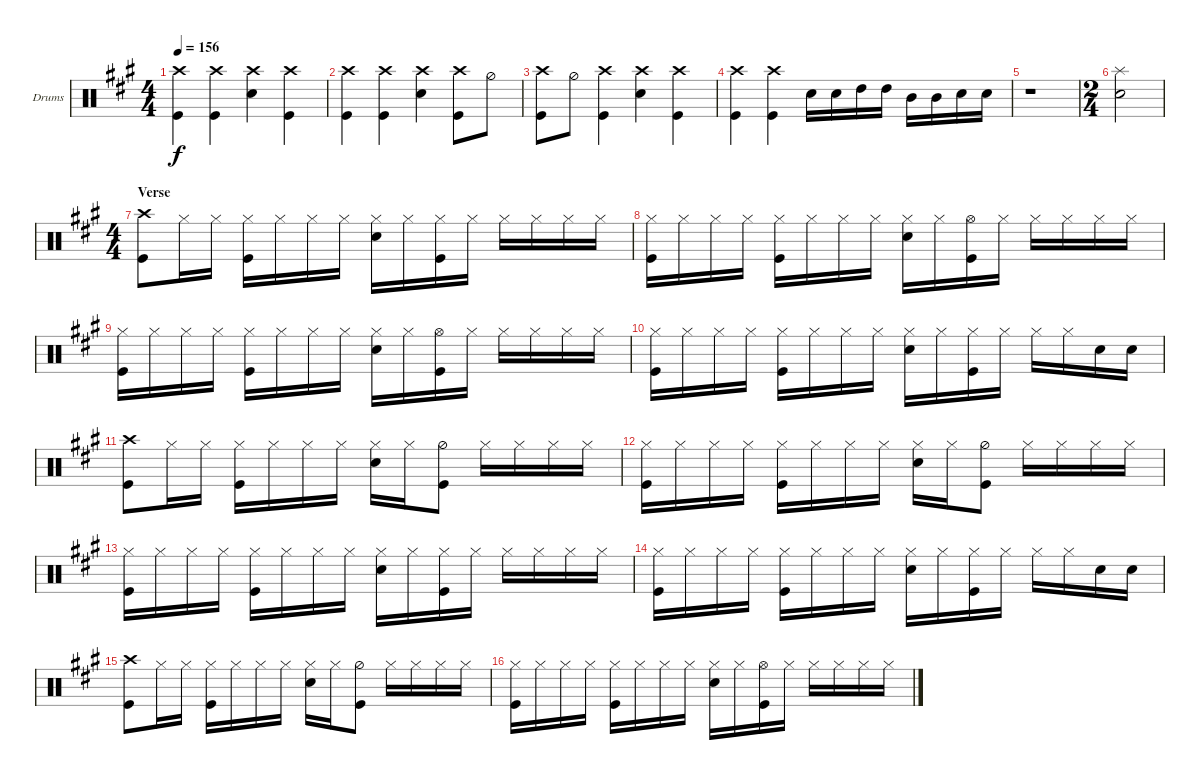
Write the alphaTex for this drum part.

\defaultSystemsLayout 4
\bracketExtendMode groupsimilarinstruments
\firstSystemTrackNameOrientation horizontal
\otherSystemsTrackNameOrientation horizontal
\track ("Drums" "Drums") {instrument percussion}
\staff {score}
\articulation defaults
\ts (4 4)
\tempo 156
\clef neutral
\ks a
("Kick (hit)" "Crash high (hit)").4{dy f} ("Kick (hit)" "Crash high (hit)").4 ("Crash high (hit)" "Snare (hit) 2").4 ("Kick (hit)" "Crash high (hit)").4 |
("Kick (hit)" "Crash high (hit)").4 ("Kick (hit)" "Crash high (hit)").4 ("Crash high (hit)" "Snare (hit) 2").4 ("Kick (hit)" "Crash high (hit)").8 "Hi-Hat (half)".8 |
("Kick (hit)" "Crash high (hit)").8 "Hi-Hat (half)".8 ("Kick (hit)" "Crash high (hit)").4 ("Crash high (hit)" "Snare (hit) 2").4 ("Kick (hit)" "Crash high (hit)").4 |
("Kick (hit)" "Crash high (hit)").4 ("Kick (hit)" "Crash high (hit)").4 "Snare (hit) 2".16 "Snare (hit) 2".16 "High Tom (hit)".16 "High Tom (hit)".16 "Mid Tom (hit)".16 "Mid Tom (hit)".16 "Snare (hit) 2".16 "Snare (hit) 2".16 |
r.1 |
\ts (2 4)
("Splash (hit)" "Snare (hit) 2").2 |
\ts (4 4)
\section ("" "Verse")
("Crash high (hit)" "Kick (hit)").8 "Hi-Hat (closed)".16 "Hi-Hat (closed)".16 ("Hi-Hat (closed)" "Kick (hit)").16 "Hi-Hat (closed)".16 "Hi-Hat (closed)".16 "Hi-Hat (closed)".16 ("Hi-Hat (closed)" "Snare (hit) 2").16 "Hi-Hat (closed)".16 ("Hi-Hat (closed)" "Kick (hit)").16 "Hi-Hat (closed)".16 "Hi-Hat (closed)".16 "Hi-Hat (closed)".16 "Hi-Hat (closed)".16 "Hi-Hat (closed)".16 |
("Hi-Hat (closed)" "Kick (hit)").16 "Hi-Hat (closed)".16 "Hi-Hat (closed)".16 "Hi-Hat (closed)".16 ("Hi-Hat (closed)" "Kick (hit)").16 "Hi-Hat (closed)".16 "Hi-Hat (closed)".16 "Hi-Hat (closed)".16 ("Hi-Hat (closed)" "Snare (hit) 2").16 "Hi-Hat (closed)".16 ("Hi-Hat (open)" "Kick (hit)").16 "Hi-Hat (closed)".16 "Hi-Hat (closed)".16 "Hi-Hat (closed)".16 "Hi-Hat (closed)".16 "Hi-Hat (closed)".16 |
("Hi-Hat (closed)" "Kick (hit)").16 "Hi-Hat (closed)".16 "Hi-Hat (closed)".16 "Hi-Hat (closed)".16 ("Hi-Hat (closed)" "Kick (hit)").16 "Hi-Hat (closed)".16 "Hi-Hat (closed)".16 "Hi-Hat (closed)".16 ("Hi-Hat (closed)" "Snare (hit) 2").16 "Hi-Hat (closed)".16 ("Hi-Hat (open)" "Kick (hit)").16 "Hi-Hat (closed)".16 "Hi-Hat (closed)".16 "Hi-Hat (closed)".16 "Hi-Hat (closed)".16 "Hi-Hat (closed)".16 |
("Hi-Hat (closed)" "Kick (hit)").16 "Hi-Hat (closed)".16 "Hi-Hat (closed)".16 "Hi-Hat (closed)".16 ("Hi-Hat (closed)" "Kick (hit)").16 "Hi-Hat (closed)".16 "Hi-Hat (closed)".16 "Hi-Hat (closed)".16 ("Hi-Hat (closed)" "Snare (hit) 2").16 "Hi-Hat (closed)".16 ("Hi-Hat (closed)" "Kick (hit)").16 "Hi-Hat (closed)".16 "Hi-Hat (closed)".16 "Hi-Hat (closed)".16 "Snare (hit) 2".16 "Snare (hit) 2".16 |
("Crash high (hit)" "Kick (hit)").8 "Hi-Hat (closed)".16 "Hi-Hat (closed)".16 ("Hi-Hat (closed)" "Kick (hit)").16 "Hi-Hat (closed)".16 "Hi-Hat (closed)".16 "Hi-Hat (closed)".16 ("Hi-Hat (closed)" "Snare (hit) 2").16 "Hi-Hat (closed)".16 ("Hi-Hat (half)" "Kick (hit)").8 "Hi-Hat (closed)".16 "Hi-Hat (closed)".16 "Hi-Hat (closed)".16 "Hi-Hat (closed)".16 |
("Hi-Hat (closed)" "Kick (hit)").16 "Hi-Hat (closed)".16 "Hi-Hat (closed)".16 "Hi-Hat (closed)".16 ("Hi-Hat (closed)" "Kick (hit)").16 "Hi-Hat (closed)".16 "Hi-Hat (closed)".16 "Hi-Hat (closed)".16 ("Hi-Hat (closed)" "Snare (hit) 2").16 "Hi-Hat (closed)".16 ("Hi-Hat (half)" "Kick (hit)").8 "Hi-Hat (closed)".16 "Hi-Hat (closed)".16 "Hi-Hat (closed)".16 "Hi-Hat (closed)".16 |
("Hi-Hat (closed)" "Kick (hit)").16 "Hi-Hat (closed)".16 "Hi-Hat (closed)".16 "Hi-Hat (closed)".16 ("Hi-Hat (closed)" "Kick (hit)").16 "Hi-Hat (closed)".16 "Hi-Hat (closed)".16 "Hi-Hat (closed)".16 ("Hi-Hat (closed)" "Snare (hit) 2").16 "Hi-Hat (closed)".16 ("Hi-Hat (closed)" "Kick (hit)").16 "Hi-Hat (closed)".16 "Hi-Hat (closed)".16 "Hi-Hat (closed)".16 "Hi-Hat (closed)".16 "Hi-Hat (closed)".16 |
("Hi-Hat (closed)" "Kick (hit)").16 "Hi-Hat (closed)".16 "Hi-Hat (closed)".16 "Hi-Hat (closed)".16 ("Hi-Hat (closed)" "Kick (hit)").16 "Hi-Hat (closed)".16 "Hi-Hat (closed)".16 "Hi-Hat (closed)".16 ("Hi-Hat (closed)" "Snare (hit) 2").16 "Hi-Hat (closed)".16 ("Hi-Hat (closed)" "Kick (hit)").16 "Hi-Hat (closed)".16 "Hi-Hat (closed)".16 "Hi-Hat (closed)".16 "Snare (hit) 2".16 "Snare (hit) 2".16 |
("Crash high (hit)" "Kick (hit)").8 "Hi-Hat (closed)".16 "Hi-Hat (closed)".16 ("Hi-Hat (closed)" "Kick (hit)").16 "Hi-Hat (closed)".16 "Hi-Hat (closed)".16 "Hi-Hat (closed)".16 ("Hi-Hat (closed)" "Snare (hit) 2").16 "Hi-Hat (closed)".16 ("Hi-Hat (half)" "Kick (hit)").8 "Hi-Hat (closed)".16 "Hi-Hat (closed)".16 "Hi-Hat (closed)".16 "Hi-Hat (closed)".16 |
("Hi-Hat (closed)" "Kick (hit)").16 "Hi-Hat (closed)".16 "Hi-Hat (closed)".16 "Hi-Hat (closed)".16 ("Hi-Hat (closed)" "Kick (hit)").16 "Hi-Hat (closed)".16 "Hi-Hat (closed)".16 "Hi-Hat (closed)".16 ("Hi-Hat (closed)" "Snare (hit) 2").16 "Hi-Hat (closed)".16 ("Hi-Hat (open)" "Kick (hit)").16 "Hi-Hat (closed)".16 "Hi-Hat (closed)".16 "Hi-Hat (closed)".16 "Hi-Hat (closed)".16 "Hi-Hat (closed)".16
